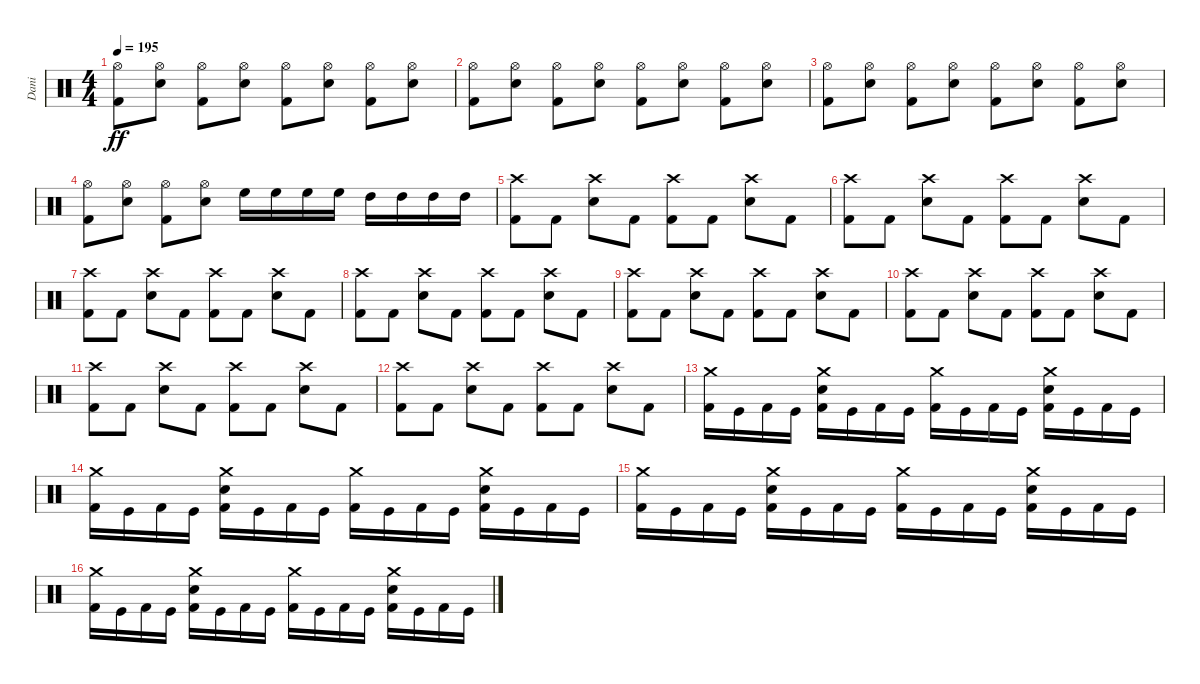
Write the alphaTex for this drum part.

\track ("Dani" "Dani") {instrument percussion}
\staff {score}
\articulation defaults
\ts (4 4)
\tempo 195
\clef neutral
\ks c
("Hi-Hat (open)" "Kick (hit) 2").8{dy ff} ("Hi-Hat (open)" "Electric Snare (hit)").8 ("Hi-Hat (open)" "Kick (hit) 2").8 ("Hi-Hat (open)" "Electric Snare (hit)").8 ("Hi-Hat (open)" "Kick (hit) 2").8 ("Hi-Hat (open)" "Electric Snare (hit)").8 ("Hi-Hat (open)" "Kick (hit) 2").8 ("Hi-Hat (open)" "Electric Snare (hit)").8 |
("Hi-Hat (open)" "Kick (hit) 2").8 ("Hi-Hat (open)" "Electric Snare (hit)").8 ("Hi-Hat (open)" "Kick (hit) 2").8 ("Hi-Hat (open)" "Electric Snare (hit)").8 ("Hi-Hat (open)" "Kick (hit) 2").8 ("Hi-Hat (open)" "Electric Snare (hit)").8 ("Hi-Hat (open)" "Kick (hit) 2").8 ("Hi-Hat (open)" "Electric Snare (hit)").8 |
("Hi-Hat (open)" "Kick (hit) 2").8 ("Hi-Hat (open)" "Electric Snare (hit)").8 ("Hi-Hat (open)" "Kick (hit) 2").8 ("Hi-Hat (open)" "Electric Snare (hit)").8 ("Hi-Hat (open)" "Kick (hit) 2").8 ("Hi-Hat (open)" "Electric Snare (hit)").8 ("Hi-Hat (open)" "Kick (hit) 2").8 ("Hi-Hat (open)" "Electric Snare (hit)").8 |
("Hi-Hat (open)" "Kick (hit) 2").8 ("Hi-Hat (open)" "Electric Snare (hit)").8 ("Hi-Hat (open)" "Kick (hit) 2").8 ("Hi-Hat (open)" "Electric Snare (hit)").8 "High Floor Tom (hit)".16 "High Floor Tom (hit)".16 "High Floor Tom (hit)".16 "High Floor Tom (hit)".16 "High Tom (hit)".16 "High Tom (hit)".16 "High Tom (hit)".16 "High Tom (hit)".16 |
("Crash high (hit)" "Kick (hit) 2").8 "Kick (hit) 2".8 ("Crash high (hit)" "Electric Snare (hit)").8 "Kick (hit) 2".8 ("Crash high (hit)" "Kick (hit) 2").8 "Kick (hit) 2".8 ("Crash high (hit)" "Electric Snare (hit)").8 "Kick (hit) 2".8 |
("Crash high (hit)" "Kick (hit) 2").8 "Kick (hit) 2".8 ("Crash high (hit)" "Electric Snare (hit)").8 "Kick (hit) 2".8 ("Crash high (hit)" "Kick (hit) 2").8 "Kick (hit) 2".8 ("Crash high (hit)" "Electric Snare (hit)").8 "Kick (hit) 2".8 |
("Crash high (hit)" "Kick (hit) 2").8 "Kick (hit) 2".8 ("Crash high (hit)" "Electric Snare (hit)").8 "Kick (hit) 2".8 ("Crash high (hit)" "Kick (hit) 2").8 "Kick (hit) 2".8 ("Crash high (hit)" "Electric Snare (hit)").8 "Kick (hit) 2".8 |
("Crash high (hit)" "Kick (hit) 2").8 "Kick (hit) 2".8 ("Crash high (hit)" "Electric Snare (hit)").8 "Kick (hit) 2".8 ("Crash high (hit)" "Kick (hit) 2").8 "Kick (hit) 2".8 ("Crash high (hit)" "Electric Snare (hit)").8 "Kick (hit) 2".8 |
("Crash high (hit)" "Kick (hit) 2").8 "Kick (hit) 2".8 ("Crash high (hit)" "Electric Snare (hit)").8 "Kick (hit) 2".8 ("Crash high (hit)" "Kick (hit) 2").8 "Kick (hit) 2".8 ("Crash high (hit)" "Electric Snare (hit)").8 "Kick (hit) 2".8 |
("Crash high (hit)" "Kick (hit) 2").8 "Kick (hit) 2".8 ("Crash high (hit)" "Electric Snare (hit)").8 "Kick (hit) 2".8 ("Crash high (hit)" "Kick (hit) 2").8 "Kick (hit) 2".8 ("Crash high (hit)" "Electric Snare (hit)").8 "Kick (hit) 2".8 |
("Crash high (hit)" "Kick (hit) 2").8 "Kick (hit) 2".8 ("Crash high (hit)" "Electric Snare (hit)").8 "Kick (hit) 2".8 ("Crash high (hit)" "Kick (hit) 2").8 "Kick (hit) 2".8 ("Crash high (hit)" "Electric Snare (hit)").8 "Kick (hit) 2".8 |
("Crash high (hit)" "Kick (hit) 2").8 "Kick (hit) 2".8 ("Crash high (hit)" "Electric Snare (hit)").8 "Kick (hit) 2".8 ("Crash high (hit)" "Kick (hit) 2").8 "Kick (hit) 2".8 ("Crash high (hit)" "Electric Snare (hit)").8 "Kick (hit) 2".8 |
("Crash medium (hit)" "Kick (hit) 2").16 "Kick (hit)".16 "Kick (hit) 2".16 "Kick (hit)".16 ("Crash medium (hit)" "Electric Snare (hit)" "Kick (hit) 2").16 "Kick (hit)".16 "Kick (hit) 2".16 "Kick (hit)".16 ("Crash medium (hit)" "Kick (hit) 2").16 "Kick (hit)".16 "Kick (hit) 2".16 "Kick (hit)".16 ("Crash medium (hit)" "Electric Snare (hit)" "Kick (hit) 2").16 "Kick (hit)".16 "Kick (hit) 2".16 "Kick (hit)".16 |
("Crash medium (hit)" "Kick (hit) 2").16 "Kick (hit)".16 "Kick (hit) 2".16 "Kick (hit)".16 ("Crash medium (hit)" "Electric Snare (hit)" "Kick (hit) 2").16 "Kick (hit)".16 "Kick (hit) 2".16 "Kick (hit)".16 ("Crash medium (hit)" "Kick (hit) 2").16 "Kick (hit)".16 "Kick (hit) 2".16 "Kick (hit)".16 ("Crash medium (hit)" "Electric Snare (hit)" "Kick (hit) 2").16 "Kick (hit)".16 "Kick (hit) 2".16 "Kick (hit)".16 |
("Crash medium (hit)" "Kick (hit) 2").16 "Kick (hit)".16 "Kick (hit) 2".16 "Kick (hit)".16 ("Crash medium (hit)" "Electric Snare (hit)" "Kick (hit) 2").16 "Kick (hit)".16 "Kick (hit) 2".16 "Kick (hit)".16 ("Crash medium (hit)" "Kick (hit) 2").16 "Kick (hit)".16 "Kick (hit) 2".16 "Kick (hit)".16 ("Crash medium (hit)" "Electric Snare (hit)" "Kick (hit) 2").16 "Kick (hit)".16 "Kick (hit) 2".16 "Kick (hit)".16 |
("Crash medium (hit)" "Kick (hit) 2").16 "Kick (hit)".16 "Kick (hit) 2".16 "Kick (hit)".16 ("Crash medium (hit)" "Electric Snare (hit)" "Kick (hit) 2").16 "Kick (hit)".16 "Kick (hit) 2".16 "Kick (hit)".16 ("Crash medium (hit)" "Kick (hit) 2").16 "Kick (hit)".16 "Kick (hit) 2".16 "Kick (hit)".16 ("Crash medium (hit)" "Electric Snare (hit)" "Kick (hit) 2").16 "Kick (hit)".16 "Kick (hit) 2".16 "Kick (hit)".16
